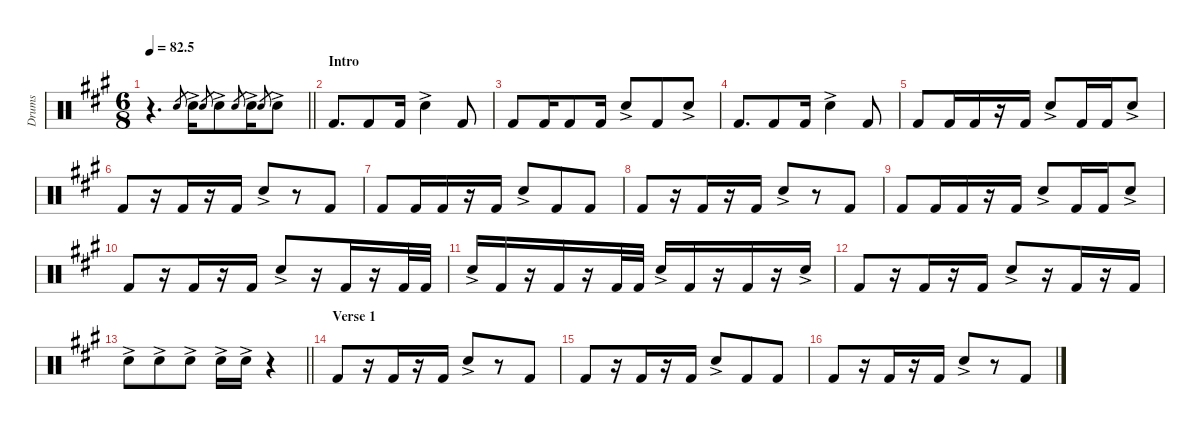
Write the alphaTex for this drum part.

\defaultSystemsLayout 4
\hideDynamics
\bracketExtendMode nobrackets
\otherSystemsTrackNameOrientation horizontal
\track ("F&S" "Drums") {instrument percussion}
\staff {score}
\articulation defaults
\ts (6 8)
\tempo
82.5
\accidentals auto
\clef neutral
\ottava regular
\simile none
\scale
0.474178
\barLineRight lightlight
\ks a
r.4{d dy mp} "Snare (hit) 2"{acc forcenatural}.8{gr} "Snare (hit) 2"{ac acc forcenatural}.16{dy f} "Snare (hit) 2"{acc forcenatural}.8{gr dy mp} "Snare (hit) 2"{ac acc forcenatural}.8{dy f} "Snare (hit) 2"{acc forcenatural}.8{gr dy mp} "Snare (hit) 2"{ac acc forcenatural}.16{dy f} "Snare (hit) 2"{acc forcenatural}.8{gr dy mp} "Snare (hit) 2"{ac acc forcenatural}.8{dy f} |
\section ("" "Intro")
\scale
0.262911 "Kick (hit) 2"{acc forcenatural}.8{d} "Kick (hit) 2"{acc forcenatural}.8 "Kick (hit) 2"{acc forcenatural}.16 "Snare (hit) 2"{ac acc forcenatural}.4 "Kick (hit) 2"{acc forcenatural}.8 |
\scale
0.262911 "Kick (hit) 2"{acc forcenatural}.8 "Kick (hit) 2"{acc forcenatural}.16 "Kick (hit) 2"{acc forcenatural}.8 "Kick (hit) 2"{acc forcenatural}.16 "Snare (hit) 2"{ac acc forcenatural}.8 "Kick (hit) 2"{acc forcenatural}.8 "Snare (hit) 2"{ac acc forcenatural}.8 |
\scale
0.333333 "Kick (hit) 2"{acc forcenatural}.8{d} "Kick (hit) 2"{acc forcenatural}.8 "Kick (hit) 2"{acc forcenatural}.16 "Snare (hit) 2"{ac acc forcenatural}.4 "Kick (hit) 2"{acc forcenatural}.8 |
\scale
0.333333 "Kick (hit) 2"{acc forcenatural}.8 "Kick (hit) 2"{acc forcenatural}.16 "Kick (hit) 2"{acc forcenatural}.16 r.16 "Kick (hit) 2"{acc forcenatural}.16 "Snare (hit) 2"{ac acc forcenatural}.8 "Kick (hit) 2"{acc forcenatural}.16 "Kick (hit) 2"{acc forcenatural}.16 "Snare (hit) 2"{ac acc forcenatural}.8 |
\scale
0.333333 "Kick (hit) 2"{acc forcenatural}.8 r.16 "Kick (hit) 2"{acc forcenatural}.16 r.16 "Kick (hit) 2"{acc forcenatural}.16 "Snare (hit) 2"{ac acc forcenatural}.8 r.8 "Kick (hit) 2"{acc forcenatural}.8 |
\scale
0.333333 "Kick (hit) 2"{acc forcenatural}.8 "Kick (hit) 2"{acc forcenatural}.16 "Kick (hit) 2"{acc forcenatural}.16 r.16 "Kick (hit) 2"{acc forcenatural}.16 "Snare (hit) 2"{ac acc forcenatural}.8 "Kick (hit) 2"{acc forcenatural}.8 "Kick (hit) 2"{acc forcenatural}.8 |
\scale
0.333333 "Kick (hit) 2"{acc forcenatural}.8 r.16 "Kick (hit) 2"{acc forcenatural}.16 r.16 "Kick (hit) 2"{acc forcenatural}.16 "Snare (hit) 2"{ac acc forcenatural}.8 r.8 "Kick (hit) 2"{acc forcenatural}.8 |
\scale
0.333333 "Kick (hit) 2"{acc forcenatural}.8 "Kick (hit) 2"{acc forcenatural}.16 "Kick (hit) 2"{acc forcenatural}.16 r.16 "Kick (hit) 2"{acc forcenatural}.16 "Snare (hit) 2"{ac acc forcenatural}.8 "Kick (hit) 2"{acc forcenatural}.16 "Kick (hit) 2"{acc forcenatural}.16 "Snare (hit) 2"{ac acc forcenatural}.8 |
\scale
0.333333 "Kick (hit) 2"{acc forcenatural}.8 r.16 "Kick (hit) 2"{acc forcenatural}.16 r.16 "Kick (hit) 2"{acc forcenatural}.16 "Snare (hit) 2"{ac acc forcenatural}.8 r.16 "Kick (hit) 2"{acc forcenatural}.16 r.16 "Kick (hit) 2"{acc forcenatural}.32 "Kick (hit) 2"{acc forcenatural}.32 |
\scale
0.333333 "Snare (hit) 2"{ac acc forcenatural}.16 "Kick (hit) 2"{acc forcenatural}.16 r.16 "Kick (hit) 2"{acc forcenatural}.16 r.16 "Kick (hit) 2"{acc forcenatural}.32 "Kick (hit) 2"{acc forcenatural}.32 "Snare (hit) 2"{ac acc forcenatural}.16 "Kick (hit) 2"{acc forcenatural}.16 r.16 "Kick (hit) 2"{acc forcenatural}.16 r.16 "Snare (hit) 2"{ac acc forcenatural}.16 |
\scale
0.333333 "Kick (hit) 2"{acc forcenatural}.8 r.16 "Kick (hit) 2"{acc forcenatural}.16 r.16 "Kick (hit) 2"{acc forcenatural}.16 "Snare (hit) 2"{ac acc forcenatural}.8 r.16 "Kick (hit) 2"{acc forcenatural}.16 r.16 "Kick (hit) 2"{acc forcenatural}.16 |
\scale
0.333333
\barLineRight lightlight "Snare (hit) 2"{ac acc forcenatural}.8 "Snare (hit) 2"{ac acc forcenatural}.8 "Snare (hit) 2"{ac acc forcenatural}.8 "Snare (hit) 2"{ac acc forcenatural}.16 "Snare (hit) 2"{ac acc forcenatural}.16
r.4 |
\section ("" "Verse 1")
\scale
0.333333 "Kick (hit) 2"{acc forcenatural}.8 r.16 "Kick (hit) 2"{acc forcenatural}.16 r.16 "Kick (hit) 2"{acc forcenatural}.16 "Snare (hit) 2"{ac acc forcenatural}.8 r.8 "Kick (hit) 2"{acc forcenatural}.8 |
\scale
0.333333 "Kick (hit) 2"{acc forcenatural}.8 r.16 "Kick (hit) 2"{acc forcenatural}.16 r.16 "Kick (hit) 2"{acc forcenatural}.16 "Snare (hit) 2"{ac acc forcenatural}.8 "Kick (hit) 2"{acc forcenatural}.8 "Kick (hit) 2"{acc forcenatural}.8 |
\scale
0.333333 "Kick (hit) 2"{acc forcenatural}.8 r.16 "Kick (hit) 2"{acc forcenatural}.16 r.16 "Kick (hit) 2"{acc forcenatural}.16 "Snare (hit) 2"{ac acc forcenatural}.8 r.8 "Kick (hit) 2"{acc forcenatural}.8
